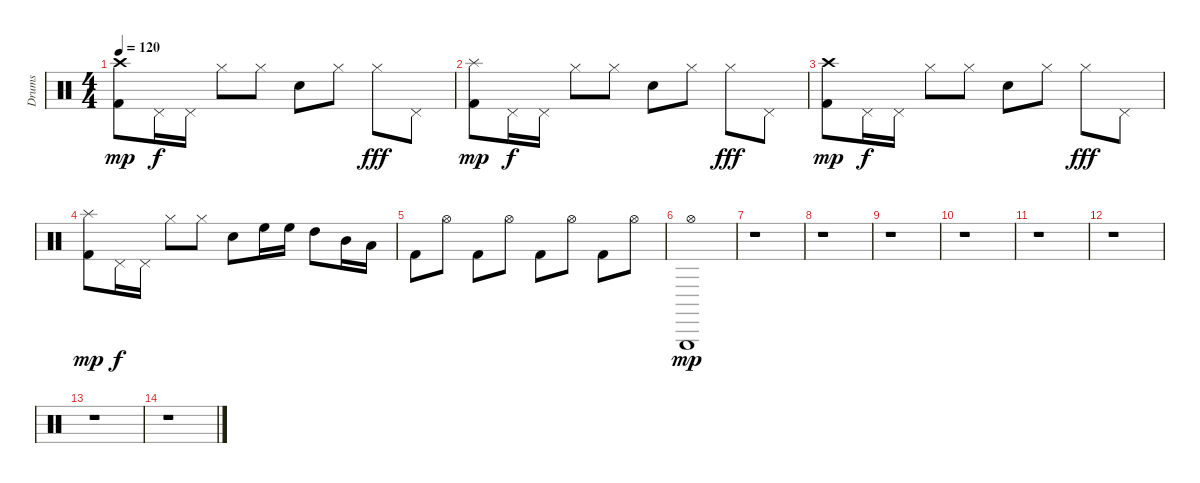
\track ("Drums" "Drums") {instrument percussion}
\staff {score}
\articulation defaults
\ts (4 4)
\tempo 120
\clef neutral
\ks c
("Kick (hit) 2" "Crash high (hit)").8{dy mp} "Pedal Hi-Hat (hit)".16{dy f} "Pedal Hi-Hat (hit)".16 "Hi-Hat (closed)".8 "Hi-Hat (closed)".8 "Electric Snare (hit)".8 "Hi-Hat (closed)".8 "Hi-Hat (closed)".8{dy fff} "Pedal Hi-Hat (hit)".8 |
("Kick (hit) 2" "Splash (hit)").8{dy mp} "Pedal Hi-Hat (hit)".16{dy f} "Pedal Hi-Hat (hit)".16 "Hi-Hat (closed)".8 "Hi-Hat (closed)".8 "Electric Snare (hit)".8 "Hi-Hat (closed)".8 "Hi-Hat (closed)".8{dy fff} "Pedal Hi-Hat (hit)".8 |
("Kick (hit) 2" "Crash high (hit)").8{dy mp} "Pedal Hi-Hat (hit)".16{dy f} "Pedal Hi-Hat (hit)".16 "Hi-Hat (closed)".8 "Hi-Hat (closed)".8 "Electric Snare (hit)".8 "Hi-Hat (closed)".8 "Hi-Hat (closed)".8{dy fff} "Pedal Hi-Hat (hit)".8 |
("Kick (hit) 2" "Splash (hit)").8{dy mp} "Pedal Hi-Hat (hit)".16{dy f} "Pedal Hi-Hat (hit)".16 "Hi-Hat (closed)".8 "Hi-Hat (closed)".8 "Electric Snare (hit)".8 "High Floor Tom (hit)".16 "High Floor Tom (hit)".16 "High Tom (hit)".8 "Mid Tom (hit)".16 "Low Tom (hit)".16 |
"Kick (hit) 2".8 "Hi-Hat (open)".8 "Kick (hit) 2".8 "Hi-Hat (open)".8 "Kick (hit) 2".8 "Hi-Hat (open)".8 "Kick (hit) 2".8 "Hi-Hat (open)".8 |
("Hi-Hat (open)" "Triangle (hit)").1{dy mp} |
r.1 |
r.1 |
r.1 |
r.1 |
r.1 |
r.1 |
r.1 |
r.1
